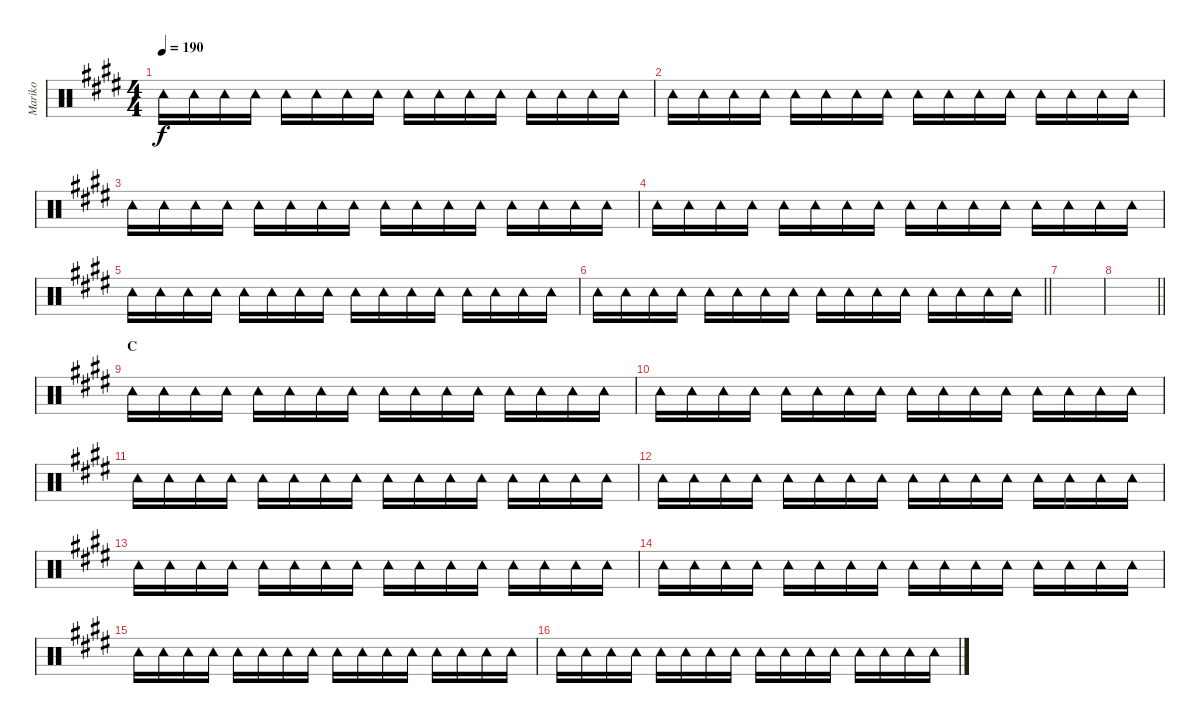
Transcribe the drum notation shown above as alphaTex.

\track ("Mariko" "Mariko") {mute instrument percussion}
\staff {score}
\articulation defaults
\ts (4 4)
\tempo 190
\clef neutral
\ks e "Tambourine (hit)".16{dy f} "Tambourine (hit)".16 "Tambourine (hit)".16 "Tambourine (hit)".16 "Tambourine (hit)".16 "Tambourine (hit)".16 "Tambourine (hit)".16 "Tambourine (hit)".16 "Tambourine (hit)".16 "Tambourine (hit)".16 "Tambourine (hit)".16 "Tambourine (hit)".16 "Tambourine (hit)".16 "Tambourine (hit)".16 "Tambourine (hit)".16 "Tambourine (hit)".16
|
"Tambourine (hit)".16 "Tambourine (hit)".16 "Tambourine (hit)".16 "Tambourine (hit)".16 "Tambourine (hit)".16 "Tambourine (hit)".16 "Tambourine (hit)".16 "Tambourine (hit)".16 "Tambourine (hit)".16 "Tambourine (hit)".16 "Tambourine (hit)".16 "Tambourine (hit)".16 "Tambourine (hit)".16 "Tambourine (hit)".16 "Tambourine (hit)".16 "Tambourine (hit)".16 |
"Tambourine (hit)".16 "Tambourine (hit)".16 "Tambourine (hit)".16 "Tambourine (hit)".16 "Tambourine (hit)".16 "Tambourine (hit)".16 "Tambourine (hit)".16 "Tambourine (hit)".16 "Tambourine (hit)".16 "Tambourine (hit)".16 "Tambourine (hit)".16 "Tambourine (hit)".16 "Tambourine (hit)".16 "Tambourine (hit)".16 "Tambourine (hit)".16 "Tambourine (hit)".16 |
"Tambourine (hit)".16 "Tambourine (hit)".16 "Tambourine (hit)".16 "Tambourine (hit)".16 "Tambourine (hit)".16 "Tambourine (hit)".16 "Tambourine (hit)".16 "Tambourine (hit)".16 "Tambourine (hit)".16 "Tambourine (hit)".16 "Tambourine (hit)".16 "Tambourine (hit)".16 "Tambourine (hit)".16 "Tambourine (hit)".16 "Tambourine (hit)".16 "Tambourine (hit)".16 |
"Tambourine (hit)".16 "Tambourine (hit)".16 "Tambourine (hit)".16 "Tambourine (hit)".16 "Tambourine (hit)".16 "Tambourine (hit)".16 "Tambourine (hit)".16 "Tambourine (hit)".16 "Tambourine (hit)".16 "Tambourine (hit)".16 "Tambourine (hit)".16 "Tambourine (hit)".16 "Tambourine (hit)".16 "Tambourine (hit)".16 "Tambourine (hit)".16 "Tambourine (hit)".16 |
\barLineRight lightlight "Tambourine (hit)".16 "Tambourine (hit)".16 "Tambourine (hit)".16 "Tambourine (hit)".16 "Tambourine (hit)".16 "Tambourine (hit)".16 "Tambourine (hit)".16 "Tambourine (hit)".16 "Tambourine (hit)".16 "Tambourine (hit)".16 "Tambourine (hit)".16 "Tambourine (hit)".16 "Tambourine (hit)".16 "Tambourine (hit)".16 "Tambourine (hit)".16 "Tambourine (hit)".16
|
|
\barLineRight lightlight
|
\section ("" "C")
"Tambourine (hit)".16 "Tambourine (hit)".16 "Tambourine (hit)".16 "Tambourine (hit)".16 "Tambourine (hit)".16 "Tambourine (hit)".16 "Tambourine (hit)".16 "Tambourine (hit)".16 "Tambourine (hit)".16 "Tambourine (hit)".16 "Tambourine (hit)".16 "Tambourine (hit)".16 "Tambourine (hit)".16 "Tambourine (hit)".16 "Tambourine (hit)".16 "Tambourine (hit)".16 |
"Tambourine (hit)".16 "Tambourine (hit)".16 "Tambourine (hit)".16 "Tambourine (hit)".16 "Tambourine (hit)".16 "Tambourine (hit)".16 "Tambourine (hit)".16 "Tambourine (hit)".16 "Tambourine (hit)".16 "Tambourine (hit)".16 "Tambourine (hit)".16 "Tambourine (hit)".16 "Tambourine (hit)".16 "Tambourine (hit)".16 "Tambourine (hit)".16 "Tambourine (hit)".16 |
"Tambourine (hit)".16 "Tambourine (hit)".16 "Tambourine (hit)".16 "Tambourine (hit)".16 "Tambourine (hit)".16 "Tambourine (hit)".16 "Tambourine (hit)".16 "Tambourine (hit)".16 "Tambourine (hit)".16 "Tambourine (hit)".16 "Tambourine (hit)".16 "Tambourine (hit)".16 "Tambourine (hit)".16 "Tambourine (hit)".16 "Tambourine (hit)".16 "Tambourine (hit)".16 |
"Tambourine (hit)".16 "Tambourine (hit)".16 "Tambourine (hit)".16 "Tambourine (hit)".16 "Tambourine (hit)".16 "Tambourine (hit)".16 "Tambourine (hit)".16 "Tambourine (hit)".16 "Tambourine (hit)".16 "Tambourine (hit)".16 "Tambourine (hit)".16 "Tambourine (hit)".16 "Tambourine (hit)".16 "Tambourine (hit)".16 "Tambourine (hit)".16 "Tambourine (hit)".16 |
"Tambourine (hit)".16 "Tambourine (hit)".16 "Tambourine (hit)".16 "Tambourine (hit)".16 "Tambourine (hit)".16 "Tambourine (hit)".16 "Tambourine (hit)".16 "Tambourine (hit)".16 "Tambourine (hit)".16 "Tambourine (hit)".16 "Tambourine (hit)".16 "Tambourine (hit)".16 "Tambourine (hit)".16 "Tambourine (hit)".16 "Tambourine (hit)".16 "Tambourine (hit)".16 |
"Tambourine (hit)".16 "Tambourine (hit)".16 "Tambourine (hit)".16 "Tambourine (hit)".16 "Tambourine (hit)".16 "Tambourine (hit)".16 "Tambourine (hit)".16 "Tambourine (hit)".16 "Tambourine (hit)".16 "Tambourine (hit)".16 "Tambourine (hit)".16 "Tambourine (hit)".16 "Tambourine (hit)".16 "Tambourine (hit)".16 "Tambourine (hit)".16 "Tambourine (hit)".16 |
"Tambourine (hit)".16 "Tambourine (hit)".16 "Tambourine (hit)".16 "Tambourine (hit)".16 "Tambourine (hit)".16 "Tambourine (hit)".16 "Tambourine (hit)".16 "Tambourine (hit)".16 "Tambourine (hit)".16 "Tambourine (hit)".16 "Tambourine (hit)".16 "Tambourine (hit)".16 "Tambourine (hit)".16 "Tambourine (hit)".16 "Tambourine (hit)".16 "Tambourine (hit)".16 |
"Tambourine (hit)".16 "Tambourine (hit)".16 "Tambourine (hit)".16 "Tambourine (hit)".16 "Tambourine (hit)".16 "Tambourine (hit)".16 "Tambourine (hit)".16 "Tambourine (hit)".16 "Tambourine (hit)".16 "Tambourine (hit)".16 "Tambourine (hit)".16 "Tambourine (hit)".16 "Tambourine (hit)".16 "Tambourine (hit)".16 "Tambourine (hit)".16 "Tambourine (hit)".16
